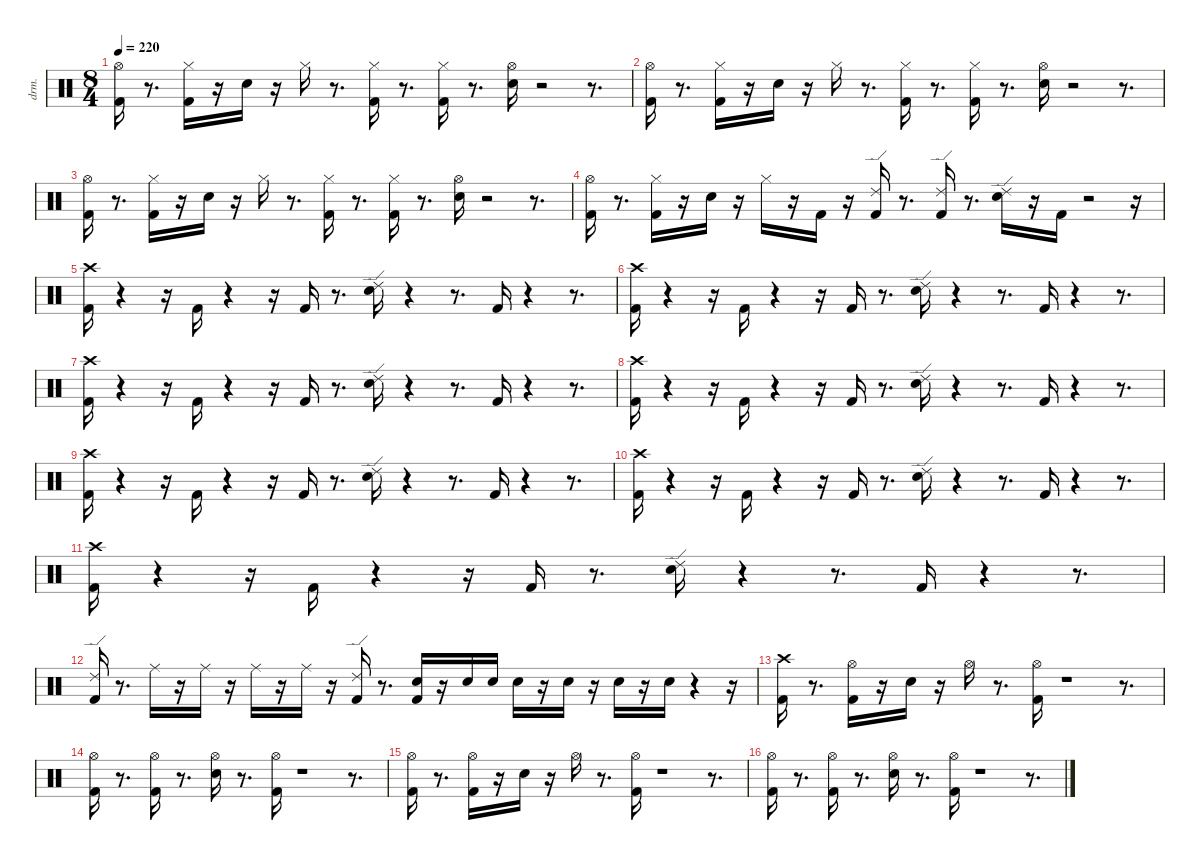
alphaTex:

\defaultSystemsLayout 4
\hideDynamics
\bracketExtendMode nobrackets
\otherSystemsTrackNameOrientation horizontal
\track ("EZdrummer 3" "drm.") {mute instrument percussion}
\staff {score}
\articulation defaults
\ts (8 4)
\tempo 220
\clef neutral
\ks c
("Kick (hit) 2" "Hi-Hat (open)"{acc #}).16{dy fff beam Down} r.8{d beam Down} ("Kick (hit) 2" "Hi-Hat (closed)"{acc #}).16{dy f beam Down} r.16{beam Down} "Snare (hit) 2".16{dy ff beam Down} r.16{beam Down} "Hi-Hat (closed)"{acc #}.16{beam Down} r.8{d beam Down} ("Kick (hit) 2" "Hi-Hat (closed)"{acc #}).16{beam Down} r.8{d beam Down} ("Kick (hit) 2" "Hi-Hat (closed)"{acc #}).16{dy f beam Down} r.8{d beam Down} ("Snare (hit) 2" "Hi-Hat (open)"{acc #}).16{dy ff beam Down} r.2{beam Down} r.8{d beam Down} |
("Kick (hit) 2" "Hi-Hat (open)"{acc #}).16{dy fff beam Down} r.8{d beam Down} ("Kick (hit) 2" "Hi-Hat (closed)"{acc #}).16{dy f beam Down} r.16{beam Down} "Snare (hit) 2".16{dy ff beam Down} r.16{beam Down} "Hi-Hat (closed)"{acc #}.16{beam Down} r.8{d beam Down} ("Kick (hit) 2" "Hi-Hat (closed)"{acc #}).16{beam Down} r.8{d beam Down} ("Kick (hit) 2" "Hi-Hat (closed)"{acc #}).16{dy f beam Down} r.8{d beam Down} ("Snare (hit) 2" "Hi-Hat (open)"{acc #}).16{dy ff beam Down} r.2{beam Down} r.8{d beam Down} |
("Kick (hit) 2" "Hi-Hat (open)"{acc #}).16{dy fff beam Down} r.8{d beam Down} ("Kick (hit) 2" "Hi-Hat (closed)"{acc #}).16{dy f beam Down} r.16{beam Down} "Snare (hit) 2".16{dy ff beam Down} r.16{beam Down} "Hi-Hat (closed)"{acc #}.16{beam Down} r.8{d beam Down} ("Kick (hit) 2" "Hi-Hat (closed)"{acc #}).16{beam Down} r.8{d beam Down} ("Kick (hit) 2" "Hi-Hat (closed)"{acc #}).16{dy f beam Down} r.8{d beam Down} ("Snare (hit) 2" "Hi-Hat (open)"{acc #}).16{dy ff beam Down} r.2{beam Down} r.8{d beam Down} |
("Kick (hit) 2" "Hi-Hat (open)"{acc #}).16{dy fff beam Down} r.8{d beam Down} ("Kick (hit) 2" "Hi-Hat (closed)"{acc #}).16{dy f beam Down} r.16{beam Down} "Snare (hit) 2".16{dy ff beam Down} r.16{beam Down} "Hi-Hat (closed)"{acc #}.16{beam Down} r.16{beam Down} "Kick (hit) 2".16{dy mp beam Up} r.16{beam Up} ("Kick (hit) 2" "Ride (edge) 2").16{dy ff beam Up} r.8{d beam Up} ("Kick (hit) 2" "Ride (edge) 2").16{dy f beam Up} r.8{d beam Up} ("Snare (hit) 2" "Ride (edge) 2").16{dy ff beam Down} r.16{beam Down} "Kick (hit) 2".16{dy mp beam Up} r.2{beam Up} r.16{beam Up} |
("Kick (hit) 2" "Crash high (hit)"{acc #}).16{dy fff beam Down} r.4{beam Down} r.16{beam Down} "Kick (hit) 2".16{dy f beam Up} r.4{beam Up} r.16{beam Up} "Kick (hit) 2".16{dy ff beam Up} r.8{d beam Up} ("Snare (hit) 2" "Ride (edge) 2").16{beam Down} r.4{beam Down} r.8{d beam Down} "Kick (hit) 2".16{dy mf beam Up} r.4{beam Up} r.8{d beam Up} |
("Kick (hit) 2" "Crash high (hit)"{acc #}).16{dy fff beam Down} r.4{beam Down} r.16{beam Down} "Kick (hit) 2".16{dy f beam Up} r.4{beam Up} r.16{beam Up} "Kick (hit) 2".16{dy ff beam Up} r.8{d beam Up} ("Snare (hit) 2" "Ride (edge) 2").16{beam Down} r.4{beam Down} r.8{d beam Down} "Kick (hit) 2".16{dy mf beam Up} r.4{beam Up} r.8{d beam Up} |
("Kick (hit) 2" "Crash high (hit)"{acc #}).16{dy fff beam Down} r.4{beam Down} r.16{beam Down} "Kick (hit) 2".16{dy f beam Up} r.4{beam Up} r.16{beam Up} "Kick (hit) 2".16{dy ff beam Up} r.8{d beam Up} ("Snare (hit) 2" "Ride (edge) 2").16{beam Down} r.4{beam Down} r.8{d beam Down} "Kick (hit) 2".16{dy mf beam Up} r.4{beam Up} r.8{d beam Up} |
("Kick (hit) 2" "Crash high (hit)"{acc #}).16{dy fff beam Down} r.4{beam Down} r.16{beam Down} "Kick (hit) 2".16{dy f beam Up} r.4{beam Up} r.16{beam Up} "Kick (hit) 2".16{dy ff beam Up} r.8{d beam Up} ("Snare (hit) 2" "Ride (edge) 2").16{beam Down} r.4{beam Down} r.8{d beam Down} "Kick (hit) 2".16{dy mf beam Up} r.4{beam Up} r.8{d beam Up} |
("Kick (hit) 2" "Crash high (hit)"{acc #}).16{dy fff beam Down} r.4{beam Down} r.16{beam Down} "Kick (hit) 2".16{dy f beam Up} r.4{beam Up} r.16{beam Up} "Kick (hit) 2".16{dy ff beam Up} r.8{d beam Up} ("Snare (hit) 2" "Ride (edge) 2").16{beam Down} r.4{beam Down} r.8{d beam Down} "Kick (hit) 2".16{dy mf beam Up} r.4{beam Up} r.8{d beam Up} |
("Kick (hit) 2" "Crash high (hit)"{acc #}).16{dy fff beam Down} r.4{beam Down} r.16{beam Down} "Kick (hit) 2".16{dy f beam Up} r.4{beam Up} r.16{beam Up} "Kick (hit) 2".16{dy ff beam Up} r.8{d beam Up} ("Snare (hit) 2" "Ride (edge) 2").16{beam Down} r.4{beam Down} r.8{d beam Down} "Kick (hit) 2".16{dy mf beam Up} r.4{beam Up} r.8{d beam Up} |
("Kick (hit) 2" "Crash high (hit)"{acc #}).16{dy fff beam Down} r.4{beam Down} r.16{beam Down} "Kick (hit) 2".16{dy f beam Up} r.4{beam Up} r.16{beam Up} "Kick (hit) 2".16{dy ff beam Up} r.8{d beam Up} ("Snare (hit) 2" "Ride (edge) 2").16{beam Down} r.4{beam Down} r.8{d beam Down} "Kick (hit) 2".16{dy mf beam Up} r.4{beam Up} r.8{d beam Up} |
("Kick (hit) 2" "Ride (edge) 2").16{dy fff beam Up} r.8{d beam Up} "Ride (middle)"{acc #}.16{dy mf beam Down} r.16{beam Down} "Ride (middle)"{acc #}.16{dy ppp beam Down} r.16{beam Down} "Ride (middle)"{acc #}.16{dy mp beam Down} r.16{beam Down} "Ride (middle)"{acc #}.16{dy ppp beam Down} r.16{beam Down} ("Kick (hit) 2" "Ride (edge) 2").16{dy ff beam Up} r.8{d beam Up} ("Kick (hit) 2" "Snare (hit) 2").16{beam Up} r.16{beam Up} "Snare (hit) 2".16{dy p beam Down} "Snare (hit) 2".16{dy pp beam Down} "Snare (hit) 2".16{dy mp beam Down} r.16{beam Down} "Snare (hit) 2".16{dy mf beam Down} r.16{beam Down} "Snare (hit) 2".16{dy ff beam Down} r.16{beam Down} "Snare (hit) 2".16{dy fff beam Down} r.4{beam Down} r.16{beam Down} |
("Kick (hit) 2" "Crash high (hit)"{acc #}).16{beam Down} r.8{d beam Down} ("Kick (hit) 2" "Hi-Hat (open)"{acc #}).16{dy ff beam Down} r.16{beam Down} "Snare (hit) 2".16{beam Down} r.16{beam Down} "Hi-Hat (open)"{acc #}.16{beam Down} r.8{d beam Down} ("Kick (hit) 2" "Hi-Hat (open)"{acc #}).16{beam Down} r.1{beam Down} r.8{d beam Down} |
("Kick (hit) 2" "Hi-Hat (open)"{acc #}).16{beam Down} r.8{d beam Down} ("Kick (hit) 2" "Hi-Hat (open)"{acc #}).16{beam Down} r.8{d beam Down} ("Snare (hit) 2" "Hi-Hat (open)"{acc #}).16{beam Down} r.8{d beam Down} ("Kick (hit) 2" "Hi-Hat (open)"{acc #}).16{dy mf beam Down} r.1{beam Down} r.8{d beam Down} |
("Kick (hit) 2" "Hi-Hat (open)"{acc #}).16{dy fff beam Down} r.8{d beam Down} ("Kick (hit) 2" "Hi-Hat (open)"{acc #}).16{dy ff beam Down} r.16{beam Down} "Snare (hit) 2".16{beam Down} r.16{beam Down} "Hi-Hat (open)"{acc #}.16{beam Down} r.8{d beam Down} ("Kick (hit) 2" "Hi-Hat (open)"{acc #}).16{beam Down} r.1{beam Down} r.8{d beam Down} |
("Kick (hit) 2" "Hi-Hat (open)"{acc #}).16{beam Down} r.8{d beam Down} ("Kick (hit) 2" "Hi-Hat (open)"{acc #}).16{beam Down} r.8{d beam Down} ("Snare (hit) 2" "Hi-Hat (open)"{acc #}).16{beam Down} r.8{d beam Down} ("Kick (hit) 2" "Hi-Hat (open)"{acc #}).16{dy mf beam Down} r.1{beam Down} r.8{d beam Down}
